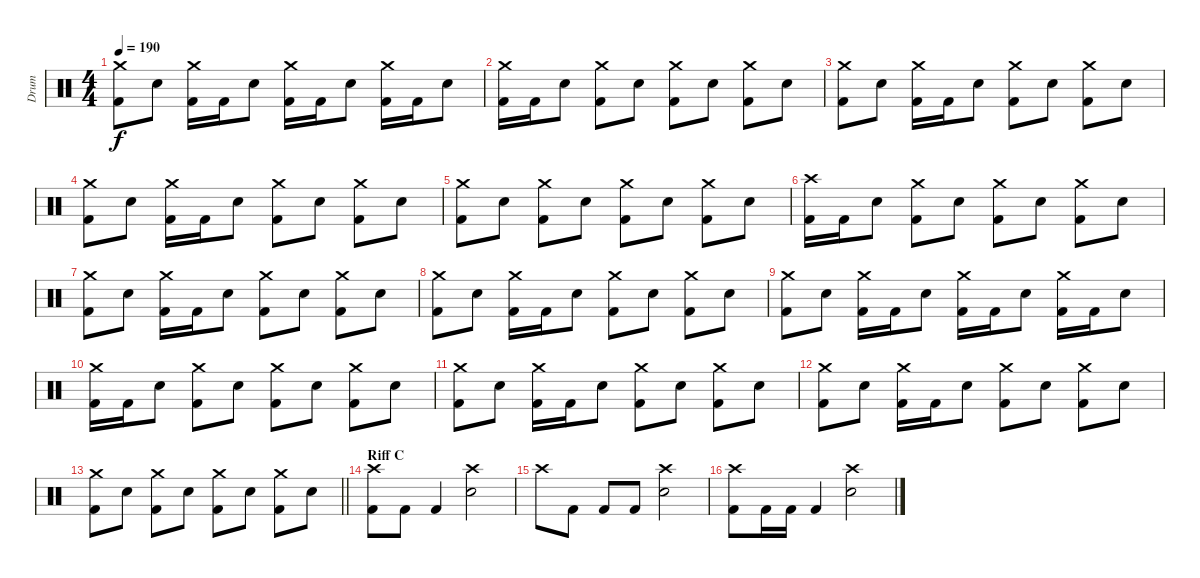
\track ("Drum" "Drum") {instrument percussion}
\staff {score}
\articulation defaults
\ts (4 4)
\tempo 190
\clef neutral
\ks c
("Crash medium (hit)" "Kick (hit) 2").8{dy f} "Electric Snare (hit)".8 ("Crash medium (hit)" "Kick (hit) 2").16 "Kick (hit) 2".16 "Electric Snare (hit)".8 ("Crash medium (hit)" "Kick (hit) 2").16 "Kick (hit) 2".16 "Electric Snare (hit)".8 ("Crash medium (hit)" "Kick (hit) 2").16 "Kick (hit) 2".16 "Electric Snare (hit)".8 |
("Crash medium (hit)" "Kick (hit) 2").16 "Kick (hit) 2".16 "Electric Snare (hit)".8 ("Crash medium (hit)" "Kick (hit) 2").8 "Electric Snare (hit)".8 ("Crash medium (hit)" "Kick (hit) 2").8 "Electric Snare (hit)".8 ("Crash medium (hit)" "Kick (hit) 2").8 "Electric Snare (hit)".8 |
("Crash medium (hit)" "Kick (hit) 2").8 "Electric Snare (hit)".8 ("Crash medium (hit)" "Kick (hit) 2").16 "Kick (hit) 2".16 "Electric Snare (hit)".8 ("Crash medium (hit)" "Kick (hit) 2").8 "Electric Snare (hit)".8 ("Crash medium (hit)" "Kick (hit) 2").8 "Electric Snare (hit)".8 |
("Crash medium (hit)" "Kick (hit) 2").8 "Electric Snare (hit)".8 ("Crash medium (hit)" "Kick (hit) 2").16 "Kick (hit) 2".16 "Electric Snare (hit)".8 ("Crash medium (hit)" "Kick (hit) 2").8 "Electric Snare (hit)".8 ("Crash medium (hit)" "Kick (hit) 2").8 "Electric Snare (hit)".8 |
("Crash medium (hit)" "Kick (hit) 2").8 "Electric Snare (hit)".8 ("Crash medium (hit)" "Kick (hit) 2").8 "Electric Snare (hit)".8 ("Crash medium (hit)" "Kick (hit) 2").8 "Electric Snare (hit)".8 ("Crash medium (hit)" "Kick (hit) 2").8 "Electric Snare (hit)".8 |
("Crash high (hit)" "Kick (hit) 2").16 "Kick (hit) 2".16 "Electric Snare (hit)".8 ("Crash medium (hit)" "Kick (hit) 2").8 "Electric Snare (hit)".8 ("Crash medium (hit)" "Kick (hit) 2").8 "Electric Snare (hit)".8 ("Crash medium (hit)" "Kick (hit) 2").8 "Electric Snare (hit)".8 |
("Crash medium (hit)" "Kick (hit) 2").8 "Electric Snare (hit)".8 ("Crash medium (hit)" "Kick (hit) 2").16 "Kick (hit) 2".16 "Electric Snare (hit)".8 ("Crash medium (hit)" "Kick (hit) 2").8 "Electric Snare (hit)".8 ("Crash medium (hit)" "Kick (hit) 2").8 "Electric Snare (hit)".8 |
("Crash medium (hit)" "Kick (hit) 2").8 "Electric Snare (hit)".8 ("Crash medium (hit)" "Kick (hit) 2").16 "Kick (hit) 2".16 "Electric Snare (hit)".8 ("Crash medium (hit)" "Kick (hit) 2").8 "Electric Snare (hit)".8 ("Crash medium (hit)" "Kick (hit) 2").8 "Electric Snare (hit)".8 |
("Crash medium (hit)" "Kick (hit) 2").8 "Electric Snare (hit)".8 ("Crash medium (hit)" "Kick (hit) 2").16 "Kick (hit) 2".16 "Electric Snare (hit)".8 ("Crash medium (hit)" "Kick (hit) 2").16 "Kick (hit) 2".16 "Electric Snare (hit)".8 ("Crash medium (hit)" "Kick (hit) 2").16 "Kick (hit) 2".16 "Electric Snare (hit)".8 |
("Crash medium (hit)" "Kick (hit) 2").16 "Kick (hit) 2".16 "Electric Snare (hit)".8 ("Crash medium (hit)" "Kick (hit) 2").8 "Electric Snare (hit)".8 ("Crash medium (hit)" "Kick (hit) 2").8 "Electric Snare (hit)".8 ("Crash medium (hit)" "Kick (hit) 2").8 "Electric Snare (hit)".8 |
("Crash medium (hit)" "Kick (hit) 2").8 "Electric Snare (hit)".8 ("Crash medium (hit)" "Kick (hit) 2").16 "Kick (hit) 2".16 "Electric Snare (hit)".8 ("Crash medium (hit)" "Kick (hit) 2").8 "Electric Snare (hit)".8 ("Crash medium (hit)" "Kick (hit) 2").8 "Electric Snare (hit)".8 |
("Crash medium (hit)" "Kick (hit) 2").8 "Electric Snare (hit)".8 ("Crash medium (hit)" "Kick (hit) 2").16 "Kick (hit) 2".16 "Electric Snare (hit)".8 ("Crash medium (hit)" "Kick (hit) 2").8 "Electric Snare (hit)".8 ("Crash medium (hit)" "Kick (hit) 2").8 "Electric Snare (hit)".8 |
\barLineRight lightlight
("Crash medium (hit)" "Kick (hit) 2").8 "Electric Snare (hit)".8 ("Crash medium (hit)" "Kick (hit) 2").8 "Electric Snare (hit)".8 ("Crash medium (hit)" "Kick (hit) 2").8 "Electric Snare (hit)".8 ("Crash medium (hit)" "Kick (hit) 2").8 "Electric Snare (hit)".8 |
\section ("" "Riff C")
("Crash high (hit)" "Kick (hit) 2").8 "Kick (hit) 2".8 "Kick (hit) 2".4 ("Crash high (hit)" "Electric Snare (hit)").2 |
"Crash high (hit)".8 "Kick (hit) 2".8 "Kick (hit) 2".8 "Kick (hit) 2".8 ("Crash high (hit)" "Electric Snare (hit)").2 |
("Crash high (hit)" "Kick (hit) 2").8 "Kick (hit) 2".16 "Kick (hit) 2".16 "Kick (hit) 2".4 ("Crash high (hit)" "Electric Snare (hit)").2
